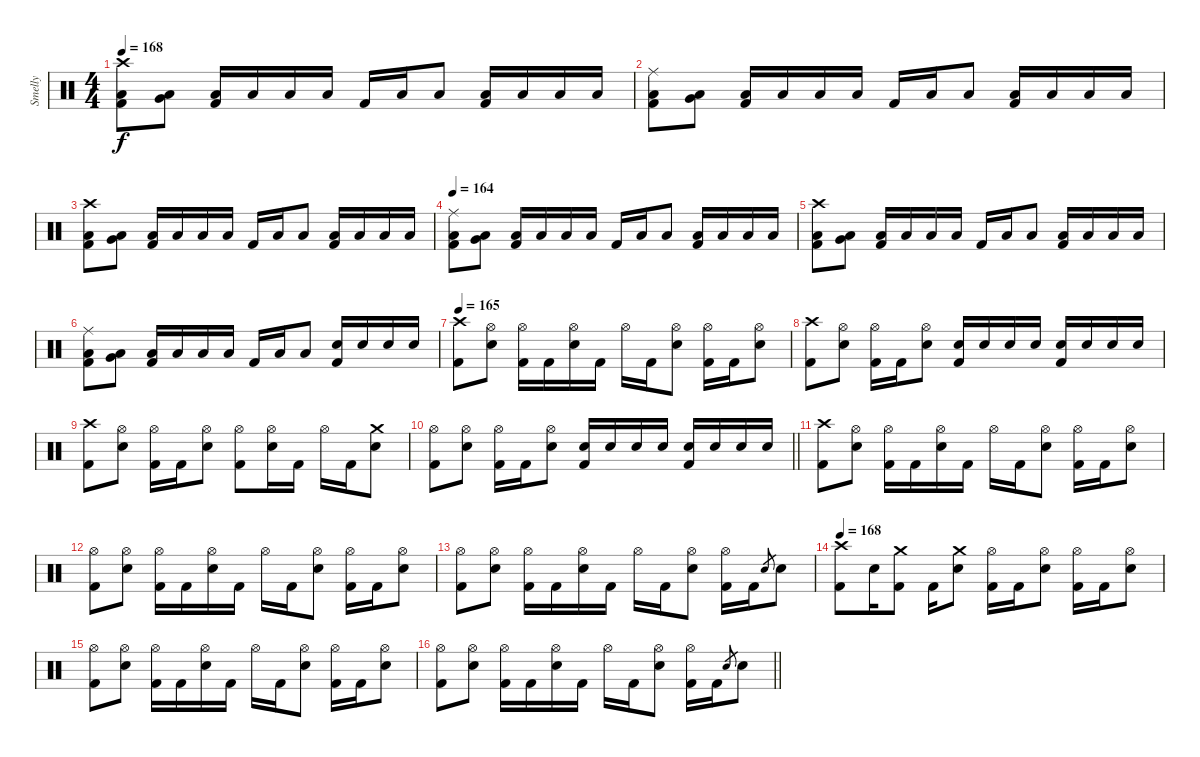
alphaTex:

\track ("Smelly" "Smelly") {instrument percussion}
\staff {score}
\articulation defaults
\ts (4 4)
\tempo 168
\clef neutral
\ks c
("Crash high (hit)" "Low Floor Tom (hit)" "Kick (hit) 2").8{dy f} ("Very Low Tom (hit)" "Low Floor Tom (hit)").8 ("Low Floor Tom (hit)" "Kick (hit) 2").16 "Low Floor Tom (hit)".16 "Low Floor Tom (hit)".16 "Low Floor Tom (hit)".16 "Kick (hit) 2".16 "Low Floor Tom (hit)".16 "Low Floor Tom (hit)".8 ("Low Floor Tom (hit)" "Kick (hit) 2").16 "Low Floor Tom (hit)".16 "Low Floor Tom (hit)".16 "Low Floor Tom (hit)".16 |
("Ride (middle)" "Low Floor Tom (hit)" "Kick (hit) 2").8 ("Very Low Tom (hit)" "Low Floor Tom (hit)").8 ("Low Floor Tom (hit)" "Kick (hit) 2").16 "Low Floor Tom (hit)".16 "Low Floor Tom (hit)".16 "Low Floor Tom (hit)".16 "Kick (hit) 2".16 "Low Floor Tom (hit)".16 "Low Floor Tom (hit)".8 ("Low Floor Tom (hit)" "Kick (hit) 2").16 "Low Floor Tom (hit)".16 "Low Floor Tom (hit)".16 "Low Floor Tom (hit)".16 |
("Crash high (hit)" "Low Floor Tom (hit)" "Kick (hit) 2").8 ("Very Low Tom (hit)" "Low Floor Tom (hit)").8 ("Low Floor Tom (hit)" "Kick (hit) 2").16 "Low Floor Tom (hit)".16 "Low Floor Tom (hit)".16 "Low Floor Tom (hit)".16 "Kick (hit) 2".16 "Low Floor Tom (hit)".16 "Low Floor Tom (hit)".8 ("Low Floor Tom (hit)" "Kick (hit) 2").16 "Low Floor Tom (hit)".16 "Low Floor Tom (hit)".16 "Low Floor Tom (hit)".16 |
\tempo 164
("Ride (middle)" "Low Floor Tom (hit)" "Kick (hit) 2").8 ("Very Low Tom (hit)" "Low Floor Tom (hit)").8 ("Low Floor Tom (hit)" "Kick (hit) 2").16 "Low Floor Tom (hit)".16 "Low Floor Tom (hit)".16 "Low Floor Tom (hit)".16 "Kick (hit) 2".16 "Low Floor Tom (hit)".16 "Low Floor Tom (hit)".8 ("Low Floor Tom (hit)" "Kick (hit) 2").16 "Low Floor Tom (hit)".16 "Low Floor Tom (hit)".16 "Low Floor Tom (hit)".16 |
("Crash high (hit)" "Low Floor Tom (hit)" "Kick (hit) 2").8 ("Very Low Tom (hit)" "Low Floor Tom (hit)").8 ("Low Floor Tom (hit)" "Kick (hit) 2").16 "Low Floor Tom (hit)".16 "Low Floor Tom (hit)".16 "Low Floor Tom (hit)".16 "Kick (hit) 2".16 "Low Floor Tom (hit)".16 "Low Floor Tom (hit)".8 ("Low Floor Tom (hit)" "Kick (hit) 2").16 "Low Floor Tom (hit)".16 "Low Floor Tom (hit)".16 "Low Floor Tom (hit)".16 |
("Ride (middle)" "Low Floor Tom (hit)" "Kick (hit) 2").8 ("Very Low Tom (hit)" "Low Floor Tom (hit)").8 ("Low Floor Tom (hit)" "Kick (hit) 2").16 "Low Floor Tom (hit)".16 "Low Floor Tom (hit)".16 "Low Floor Tom (hit)".16 "Kick (hit) 2".16 "Low Floor Tom (hit)".16 "Low Floor Tom (hit)".8 ("Electric Snare (hit)" "Kick (hit) 2").16 "Electric Snare (hit)".16 "Electric Snare (hit)".16 "Electric Snare (hit)".16 |
\tempo 165
("Crash high (hit)" "Kick (hit) 2").8 ("Hi-Hat (open)" "Electric Snare (hit)").8 ("Hi-Hat (open)" "Kick (hit) 2").16 "Kick (hit) 2".16 ("Hi-Hat (open)" "Electric Snare (hit)").16 "Kick (hit) 2".16 "Hi-Hat (open)".16 "Kick (hit) 2".16 ("Hi-Hat (open)" "Electric Snare (hit)").8 ("Hi-Hat (open)" "Kick (hit) 2").16 "Kick (hit) 2".16 ("Hi-Hat (open)" "Electric Snare (hit)").8 |
("Crash high (hit)" "Kick (hit) 2").8 ("Hi-Hat (open)" "Electric Snare (hit)").8 ("Hi-Hat (open)" "Kick (hit) 2").16 "Kick (hit) 2".16 ("Hi-Hat (open)" "Electric Snare (hit)").8 ("Electric Snare (hit)" "Kick (hit) 2").16 "Electric Snare (hit)".16 "Electric Snare (hit)".16 "Electric Snare (hit)".16 ("Electric Snare (hit)" "Kick (hit) 2").16 "Electric Snare (hit)".16 "Electric Snare (hit)".16 "Electric Snare (hit)".16 |
("Crash high (hit)" "Kick (hit) 2").8 ("Hi-Hat (open)" "Electric Snare (hit)").8 ("Hi-Hat (open)" "Kick (hit) 2").16 "Kick (hit) 2".16 ("Hi-Hat (open)" "Electric Snare (hit)").8 ("Hi-Hat (open)" "Kick (hit) 2").8 ("Hi-Hat (open)" "Electric Snare (hit)").16 "Kick (hit) 2".16 "Hi-Hat (open)".16 "Kick (hit) 2".16 ("Crash medium (hit)" "Electric Snare (hit)").8 |
\barLineRight lightlight
("Hi-Hat (open)" "Kick (hit) 2").8 ("Hi-Hat (open)" "Electric Snare (hit)").8 ("Hi-Hat (open)" "Kick (hit) 2").16 "Kick (hit) 2".16 ("Hi-Hat (open)" "Electric Snare (hit)").8 ("Electric Snare (hit)" "Kick (hit) 2").16 "Electric Snare (hit)".16 "Electric Snare (hit)".16 "Electric Snare (hit)".16 ("Electric Snare (hit)" "Kick (hit) 2").16 "Electric Snare (hit)".16 "Electric Snare (hit)".16 "Electric Snare (hit)".16 |
\section ("" "")
("Crash high (hit)" "Kick (hit) 2").8 ("Hi-Hat (open)" "Electric Snare (hit)").8 ("Hi-Hat (open)" "Kick (hit) 2").16 "Kick (hit) 2".16 ("Hi-Hat (open)" "Electric Snare (hit)").16 "Kick (hit) 2".16 "Hi-Hat (open)".16 "Kick (hit) 2".16 ("Hi-Hat (open)" "Electric Snare (hit)").8 ("Hi-Hat (open)" "Kick (hit) 2").16 "Kick (hit) 2".16 ("Hi-Hat (open)" "Electric Snare (hit)").8 |
("Hi-Hat (open)" "Kick (hit) 2").8 ("Hi-Hat (open)" "Electric Snare (hit)").8 ("Hi-Hat (open)" "Kick (hit) 2").16 "Kick (hit) 2".16 ("Hi-Hat (open)" "Electric Snare (hit)").16 "Kick (hit) 2".16 "Hi-Hat (open)".16 "Kick (hit) 2".16 ("Hi-Hat (open)" "Electric Snare (hit)").8 ("Hi-Hat (open)" "Kick (hit) 2").16 "Kick (hit) 2".16 ("Hi-Hat (open)" "Electric Snare (hit)").8 |
("Hi-Hat (open)" "Kick (hit) 2").8 ("Hi-Hat (open)" "Electric Snare (hit)").8 ("Hi-Hat (open)" "Kick (hit) 2").16 "Kick (hit) 2".16 ("Hi-Hat (open)" "Electric Snare (hit)").16 "Kick (hit) 2".16 "Hi-Hat (open)".16 "Kick (hit) 2".16 ("Hi-Hat (open)" "Electric Snare (hit)").8 ("Hi-Hat (open)" "Kick (hit) 2").16 "Kick (hit) 2".16 "Electric Snare (hit)".8{gr} "Electric Snare (hit)".8 |
\tempo 168
("Crash high (hit)" "Kick (hit) 2").8 "Electric Snare (hit)".16 ("Crash medium (hit)" "Kick (hit) 2").8 "Kick (hit) 2".16 ("Crash medium (hit)" "Electric Snare (hit)").8 ("Hi-Hat (open)" "Kick (hit) 2").16 "Kick (hit) 2".16 ("Hi-Hat (open)" "Electric Snare (hit)").8 ("Hi-Hat (open)" "Kick (hit) 2").16 "Kick (hit) 2".16 ("Hi-Hat (open)" "Electric Snare (hit)").8 |
("Hi-Hat (open)" "Kick (hit) 2").8 ("Hi-Hat (open)" "Electric Snare (hit)").8 ("Hi-Hat (open)" "Kick (hit) 2").16 "Kick (hit) 2".16 ("Hi-Hat (open)" "Electric Snare (hit)").16 "Kick (hit) 2".16 "Hi-Hat (open)".16 "Kick (hit) 2".16 ("Hi-Hat (open)" "Electric Snare (hit)").8 ("Hi-Hat (open)" "Kick (hit) 2").16 "Kick (hit) 2".16 ("Hi-Hat (open)" "Electric Snare (hit)").8 |
\barLineRight lightlight
("Hi-Hat (open)" "Kick (hit) 2").8 ("Hi-Hat (open)" "Electric Snare (hit)").8 ("Hi-Hat (open)" "Kick (hit) 2").16 "Kick (hit) 2".16 ("Hi-Hat (open)" "Electric Snare (hit)").16 "Kick (hit) 2".16 "Hi-Hat (open)".16 "Kick (hit) 2".16 ("Hi-Hat (open)" "Electric Snare (hit)").8 ("Hi-Hat (open)" "Kick (hit) 2").16 "Kick (hit) 2".16 "Electric Snare (hit)".8{gr} "Electric Snare (hit)".8
